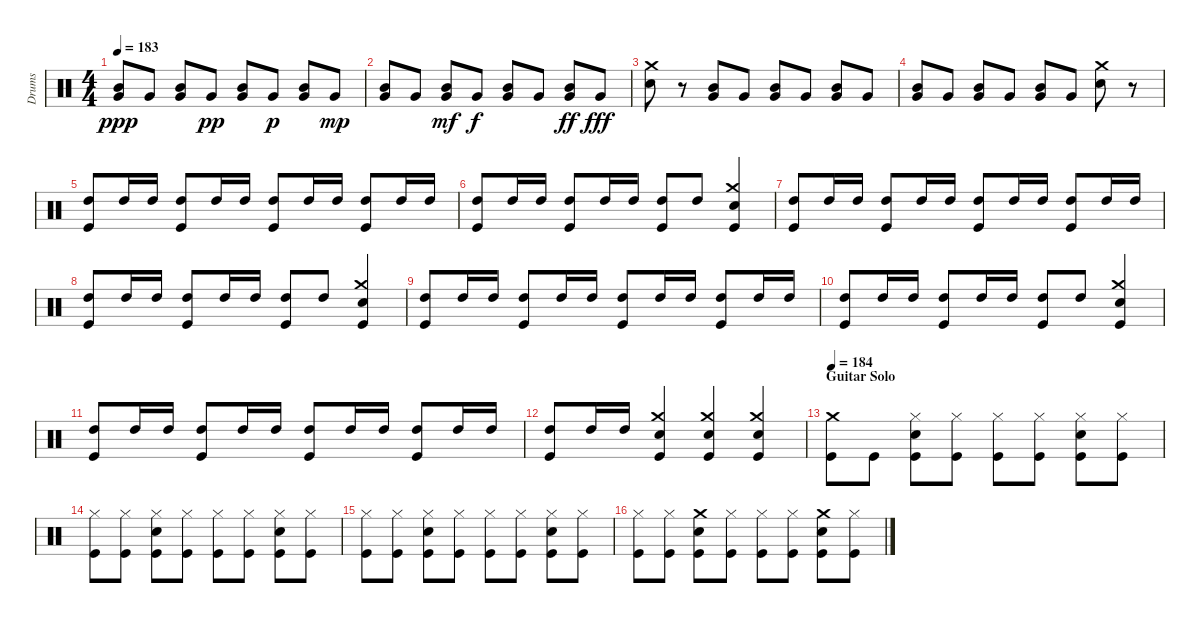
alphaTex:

\track ("Drums" "Drums") {instrument percussion}
\staff {score}
\articulation defaults
\ts (4 4)
\tempo 183
\clef neutral
\ks c
("Mid Tom (hit)" "Very Low Tom (hit)").8{dy ppp} "Very Low Tom (hit)".8 ("Mid Tom (hit)" "Very Low Tom (hit)").8 "Very Low Tom (hit)".8{dy pp} ("Mid Tom (hit)" "Very Low Tom (hit)").8 "Very Low Tom (hit)".8{dy p} ("Mid Tom (hit)" "Very Low Tom (hit)").8 "Very Low Tom (hit)".8{dy mp} |
("Mid Tom (hit)" "Very Low Tom (hit)").8 "Very Low Tom (hit)".8 ("Mid Tom (hit)" "Very Low Tom (hit)").8{dy mf} "Very Low Tom (hit)".8{dy f} ("Mid Tom (hit)" "Very Low Tom (hit)").8 "Very Low Tom (hit)".8 ("Mid Tom (hit)" "Very Low Tom (hit)").8{dy ff} "Very Low Tom (hit)".8{dy fff} |
("Snare (hit) 2" "Crash medium (hit)").8 r.8 ("Mid Tom (hit)" "Very Low Tom (hit)").8 "Very Low Tom (hit)".8 ("Mid Tom (hit)" "Very Low Tom (hit)").8 "Very Low Tom (hit)".8 ("Mid Tom (hit)" "Very Low Tom (hit)").8 "Very Low Tom (hit)".8 |
("Mid Tom (hit)" "Very Low Tom (hit)").8 "Very Low Tom (hit)".8 ("Mid Tom (hit)" "Very Low Tom (hit)").8 "Very Low Tom (hit)".8 ("Mid Tom (hit)" "Very Low Tom (hit)").8 "Very Low Tom (hit)".8 ("Snare (hit) 2" "Crash medium (hit)").8 r.8 |
("High Tom (hit)" "Kick (hit)").8 "High Tom (hit)".16 "High Tom (hit)".16 ("High Tom (hit)" "Kick (hit)").8 "High Tom (hit)".16 "High Tom (hit)".16 ("High Tom (hit)" "Kick (hit)").8 "High Tom (hit)".16 "High Tom (hit)".16 ("High Tom (hit)" "Kick (hit)").8 "High Tom (hit)".16 "High Tom (hit)".16 |
("High Tom (hit)" "Kick (hit)").8 "High Tom (hit)".16 "High Tom (hit)".16 ("High Tom (hit)" "Kick (hit)").8 "High Tom (hit)".16 "High Tom (hit)".16 ("High Tom (hit)" "Kick (hit)").8 "High Tom (hit)".8 ("Crash medium (hit)" "Snare (hit) 2" "Kick (hit)").4 |
("High Tom (hit)" "Kick (hit)").8 "High Tom (hit)".16 "High Tom (hit)".16 ("High Tom (hit)" "Kick (hit)").8 "High Tom (hit)".16 "High Tom (hit)".16 ("High Tom (hit)" "Kick (hit)").8 "High Tom (hit)".16 "High Tom (hit)".16 ("High Tom (hit)" "Kick (hit)").8 "High Tom (hit)".16 "High Tom (hit)".16 |
("High Tom (hit)" "Kick (hit)").8 "High Tom (hit)".16 "High Tom (hit)".16 ("High Tom (hit)" "Kick (hit)").8 "High Tom (hit)".16 "High Tom (hit)".16 ("High Tom (hit)" "Kick (hit)").8 "High Tom (hit)".8 ("Crash medium (hit)" "Snare (hit) 2" "Kick (hit)").4 |
("High Tom (hit)" "Kick (hit)").8 "High Tom (hit)".16 "High Tom (hit)".16 ("High Tom (hit)" "Kick (hit)").8 "High Tom (hit)".16 "High Tom (hit)".16 ("High Tom (hit)" "Kick (hit)").8 "High Tom (hit)".16 "High Tom (hit)".16 ("High Tom (hit)" "Kick (hit)").8 "High Tom (hit)".16 "High Tom (hit)".16 |
("High Tom (hit)" "Kick (hit)").8 "High Tom (hit)".16 "High Tom (hit)".16 ("High Tom (hit)" "Kick (hit)").8 "High Tom (hit)".16 "High Tom (hit)".16 ("High Tom (hit)" "Kick (hit)").8 "High Tom (hit)".8 ("Crash medium (hit)" "Snare (hit) 2" "Kick (hit)").4 |
("High Tom (hit)" "Kick (hit)").8 "High Tom (hit)".16 "High Tom (hit)".16 ("High Tom (hit)" "Kick (hit)").8 "High Tom (hit)".16 "High Tom (hit)".16 ("High Tom (hit)" "Kick (hit)").8 "High Tom (hit)".16 "High Tom (hit)".16 ("High Tom (hit)" "Kick (hit)").8 "High Tom (hit)".16 "High Tom (hit)".16 |
("High Tom (hit)" "Kick (hit)").8 "High Tom (hit)".16 "High Tom (hit)".16 ("Crash medium (hit)" "Snare (hit) 2" "Kick (hit)").4 ("Snare (hit) 2" "Crash medium (hit)" "Kick (hit)").4 ("Crash medium (hit)" "Snare (hit) 2" "Kick (hit)").4 |
\section ("" "Guitar Solo")
\tempo 184
("Crash medium (hit)" "Kick (hit)").8 "Kick (hit)".8 ("Snare (hit) 2" "Hi-Hat (closed)" "Kick (hit)").8 ("Hi-Hat (closed)" "Kick (hit)").8 ("Hi-Hat (closed)" "Kick (hit)").8 ("Hi-Hat (closed)" "Kick (hit)").8 ("Snare (hit) 2" "Hi-Hat (closed)" "Kick (hit)").8 ("Hi-Hat (closed)" "Kick (hit)").8 |
("Kick (hit)" "Hi-Hat (closed)").8 ("Kick (hit)" "Hi-Hat (closed)").8 ("Snare (hit) 2" "Kick (hit)" "Hi-Hat (closed)").8 ("Kick (hit)" "Hi-Hat (closed)").8 ("Kick (hit)" "Hi-Hat (closed)").8 ("Kick (hit)" "Hi-Hat (closed)").8 ("Snare (hit) 2" "Kick (hit)" "Hi-Hat (closed)").8 ("Kick (hit)" "Hi-Hat (closed)").8 |
("Kick (hit)" "Hi-Hat (closed)").8 ("Kick (hit)" "Hi-Hat (closed)").8 ("Snare (hit) 2" "Kick (hit)" "Hi-Hat (closed)").8 ("Kick (hit)" "Hi-Hat (closed)").8 ("Kick (hit)" "Hi-Hat (closed)").8 ("Kick (hit)" "Hi-Hat (closed)").8 ("Snare (hit) 2" "Kick (hit)" "Hi-Hat (closed)").8 ("Kick (hit)" "Hi-Hat (closed)").8 |
("Kick (hit)" "Hi-Hat (closed)").8 ("Kick (hit)" "Hi-Hat (closed)").8 ("Crash medium (hit)" "Snare (hit) 2" "Kick (hit)").8 ("Kick (hit)" "Hi-Hat (closed)").8 ("Kick (hit)" "Hi-Hat (closed)").8 ("Kick (hit)" "Hi-Hat (closed)").8 ("Crash medium (hit)" "Snare (hit) 2" "Kick (hit)").8 ("Kick (hit)" "Hi-Hat (closed)").8
